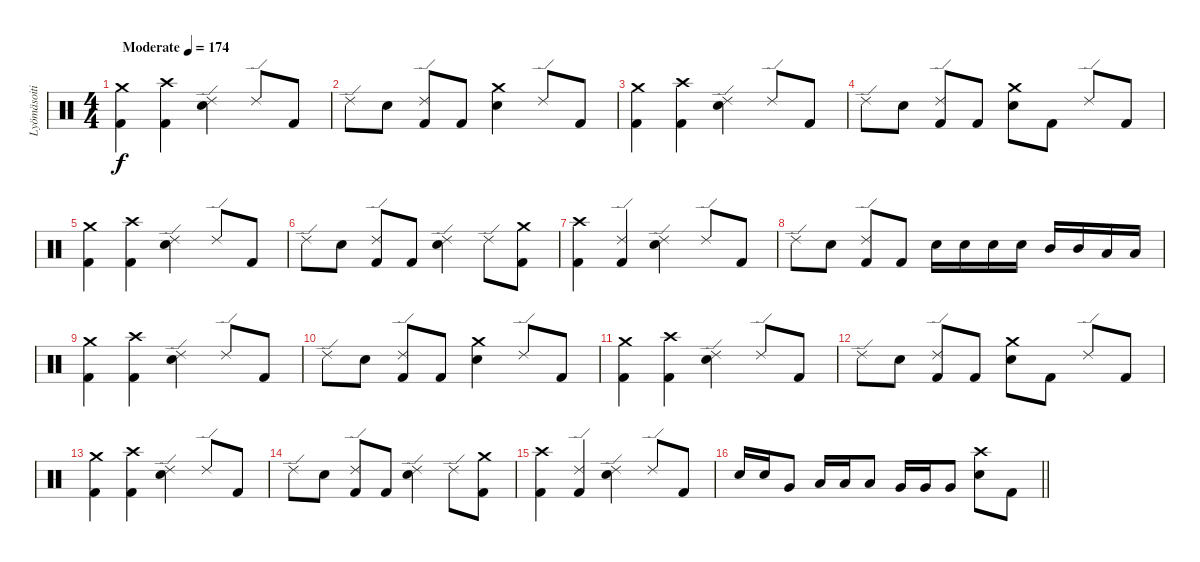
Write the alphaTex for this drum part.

\track ("Lyömäsoitin" "Lyömäsoiti") {instrument percussion}
\staff {score}
\articulation defaults
\ts (4 4)
\tempo (174 "Moderate")
\clef neutral
\ks c
("Crash medium (hit)" "Kick (hit) 2").4{dy f} ("Crash high (hit)" "Kick (hit) 2").4 ("Ride (edge) 2" "Electric Snare (hit)").4 "Ride (edge) 2".8 "Kick (hit) 2".8 |
"Ride (edge) 2".8 "Electric Snare (hit)".8 ("Ride (edge) 2" "Kick (hit) 2").8 "Kick (hit) 2".8 ("Crash medium (hit)" "Electric Snare (hit)").4 "Ride (edge) 2".8 "Kick (hit) 2".8 |
("Crash medium (hit)" "Kick (hit) 2").4 ("Crash high (hit)" "Kick (hit) 2").4 ("Ride (edge) 2" "Electric Snare (hit)").4 "Ride (edge) 2".8 "Kick (hit) 2".8 |
"Ride (edge) 2".8 "Electric Snare (hit)".8 ("Ride (edge) 2" "Kick (hit) 2").8 "Kick (hit) 2".8 ("Crash medium (hit)" "Electric Snare (hit)").8 "Kick (hit) 2".8 "Ride (edge) 2".8 "Kick (hit) 2".8 |
("Crash medium (hit)" "Kick (hit) 2").4 ("Crash high (hit)" "Kick (hit) 2").4 ("Ride (edge) 2" "Electric Snare (hit)").4 "Ride (edge) 2".8 "Kick (hit) 2".8 |
"Ride (edge) 2".8 "Electric Snare (hit)".8 ("Ride (edge) 2" "Kick (hit) 2").8 "Kick (hit) 2".8 ("Ride (edge) 2" "Electric Snare (hit)").4 "Ride (edge) 2".8 ("Crash medium (hit)" "Kick (hit) 2").8 |
("Crash high (hit)" "Kick (hit) 2").4 ("Ride (edge) 2" "Kick (hit) 2").4 ("Ride (edge) 2" "Electric Snare (hit)").4 "Ride (edge) 2".8 "Kick (hit) 2".8 |
"Ride (edge) 2".8 "Electric Snare (hit)".8 ("Ride (edge) 2" "Kick (hit) 2").8 "Kick (hit) 2".8 "Electric Snare (hit)".16 "Electric Snare (hit)".16 "Electric Snare (hit)".16 "Electric Snare (hit)".16 "Mid Tom (hit)".16 "Mid Tom (hit)".16 "Low Tom (hit)".16 "Low Tom (hit)".16 |
("Crash medium (hit)" "Kick (hit) 2").4 ("Crash high (hit)" "Kick (hit) 2").4 ("Ride (edge) 2" "Electric Snare (hit)").4 "Ride (edge) 2".8 "Kick (hit) 2".8 |
"Ride (edge) 2".8 "Electric Snare (hit)".8 ("Ride (edge) 2" "Kick (hit) 2").8 "Kick (hit) 2".8 ("Crash medium (hit)" "Electric Snare (hit)").4 "Ride (edge) 2".8 "Kick (hit) 2".8 |
("Crash medium (hit)" "Kick (hit) 2").4 ("Crash high (hit)" "Kick (hit) 2").4 ("Ride (edge) 2" "Electric Snare (hit)").4 "Ride (edge) 2".8 "Kick (hit) 2".8 |
"Ride (edge) 2".8 "Electric Snare (hit)".8 ("Ride (edge) 2" "Kick (hit) 2").8 "Kick (hit) 2".8 ("Crash medium (hit)" "Electric Snare (hit)").8 "Kick (hit) 2".8 "Ride (edge) 2".8 "Kick (hit) 2".8 |
("Crash medium (hit)" "Kick (hit) 2").4 ("Crash high (hit)" "Kick (hit) 2").4 ("Ride (edge) 2" "Electric Snare (hit)").4 "Ride (edge) 2".8 "Kick (hit) 2".8 |
"Ride (edge) 2".8 "Electric Snare (hit)".8 ("Ride (edge) 2" "Kick (hit) 2").8 "Kick (hit) 2".8 ("Ride (edge) 2" "Electric Snare (hit)").4 "Ride (edge) 2".8 ("Crash medium (hit)" "Kick (hit) 2").8 |
("Crash high (hit)" "Kick (hit) 2").4 ("Ride (edge) 2" "Kick (hit) 2").4 ("Ride (edge) 2" "Electric Snare (hit)").4 "Ride (edge) 2".8 "Kick (hit) 2".8 |
\barLineRight lightlight "Electric Snare (hit)".16 "Electric Snare (hit)".16 "Very Low Tom (hit)".8 "Low Tom (hit)".16 "Low Tom (hit)".16 "Low Tom (hit)".8 "Very Low Tom (hit)".16 "Very Low Tom (hit)".16 "Very Low Tom (hit)".8
("Crash high (hit)" "Electric Snare (hit)").8 "Kick (hit) 2".8
